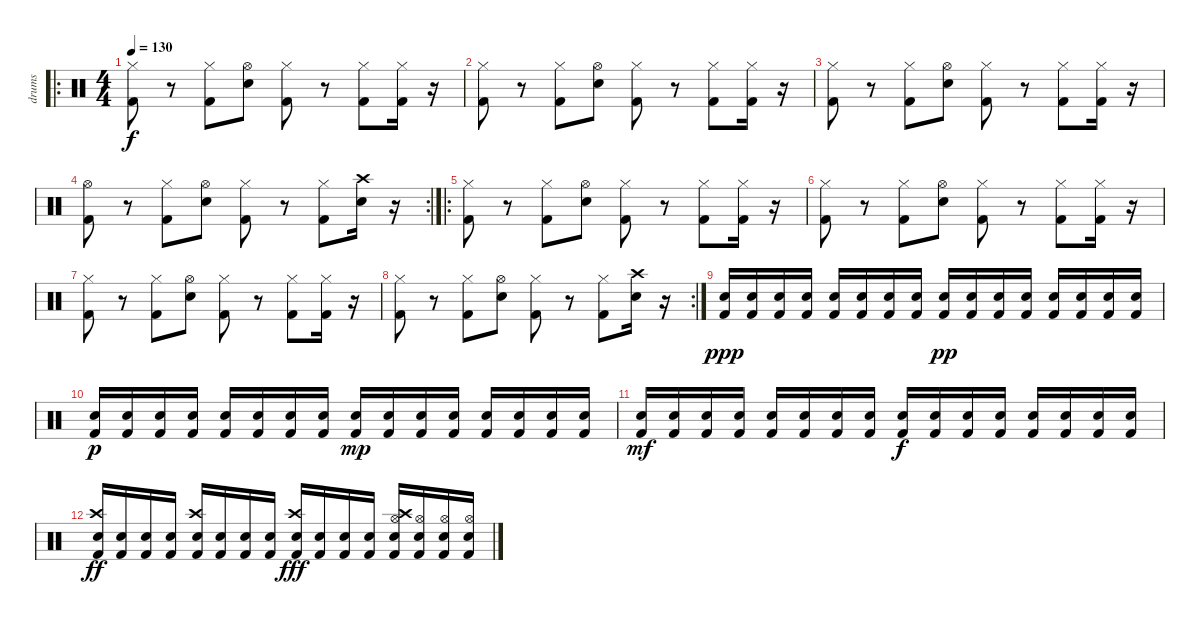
\track ("drums" "drums") {instrument percussion}
\staff {score}
\articulation defaults
\ro
\ts (4 4)
\tempo 130
\clef neutral
\ks c
("Hi-Hat (closed)" "Kick (hit) 2").8{dy f} r.8 ("Hi-Hat (closed)" "Kick (hit) 2").8 ("Hi-Hat (open)" "Snare (hit) 2").8 ("Hi-Hat (closed)" "Kick (hit) 2").8 r.8 ("Hi-Hat (closed)" "Kick (hit) 2").8 ("Hi-Hat (closed)" "Kick (hit) 2").16 r.16 |
("Hi-Hat (closed)" "Kick (hit) 2").8 r.8 ("Hi-Hat (closed)" "Kick (hit) 2").8 ("Hi-Hat (open)" "Snare (hit) 2").8 ("Hi-Hat (closed)" "Kick (hit) 2").8 r.8 ("Hi-Hat (closed)" "Kick (hit) 2").8 ("Hi-Hat (closed)" "Kick (hit) 2").16 r.16 |
("Hi-Hat (closed)" "Kick (hit) 2").8 r.8 ("Hi-Hat (closed)" "Kick (hit) 2").8 ("Hi-Hat (open)" "Snare (hit) 2").8 ("Hi-Hat (closed)" "Kick (hit) 2").8 r.8 ("Hi-Hat (closed)" "Kick (hit) 2").8 ("Hi-Hat (closed)" "Kick (hit) 2").16 r.16 |
\rc 2
("Hi-Hat (open)" "Kick (hit) 2").8 r.8 ("Hi-Hat (closed)" "Kick (hit) 2").8 ("Hi-Hat (open)" "Snare (hit) 2").8 ("Hi-Hat (closed)" "Kick (hit) 2").8 r.8 ("Hi-Hat (closed)" "Kick (hit) 2").8 ("Crash high (hit)" "Electric Snare (hit)").16 r.16 |
\ro
("Hi-Hat (closed)" "Kick (hit) 2").8 r.8 ("Hi-Hat (closed)" "Kick (hit) 2").8 ("Hi-Hat (open)" "Snare (hit) 2").8 ("Hi-Hat (closed)" "Kick (hit) 2").8 r.8 ("Hi-Hat (closed)" "Kick (hit) 2").8 ("Hi-Hat (closed)" "Kick (hit) 2").16 r.16 |
("Hi-Hat (closed)" "Kick (hit) 2").8 r.8 ("Hi-Hat (closed)" "Kick (hit) 2").8 ("Hi-Hat (open)" "Snare (hit) 2").8 ("Hi-Hat (closed)" "Kick (hit) 2").8 r.8 ("Hi-Hat (closed)" "Kick (hit) 2").8 ("Hi-Hat (closed)" "Kick (hit) 2").16 r.16 |
("Hi-Hat (closed)" "Kick (hit) 2").8 r.8 ("Hi-Hat (closed)" "Kick (hit) 2").8 ("Hi-Hat (open)" "Snare (hit) 2").8 ("Hi-Hat (closed)" "Kick (hit) 2").8 r.8 ("Hi-Hat (closed)" "Kick (hit) 2").8 ("Hi-Hat (closed)" "Kick (hit) 2").16 r.16 |
\rc 2
("Hi-Hat (closed)" "Kick (hit) 2").8 r.8 ("Hi-Hat (closed)" "Kick (hit) 2").8 ("Hi-Hat (open)" "Snare (hit) 2").8 ("Hi-Hat (closed)" "Kick (hit) 2").8 r.8 ("Hi-Hat (closed)" "Kick (hit) 2").8 ("Crash high (hit)" "Electric Snare (hit)").16 r.16 |
("Electric Snare (hit)" "Kick (hit) 2").16{dy ppp} ("Electric Snare (hit)" "Kick (hit) 2").16 ("Electric Snare (hit)" "Kick (hit) 2").16 ("Electric Snare (hit)" "Kick (hit) 2").16 ("Electric Snare (hit)" "Kick (hit) 2").16 ("Electric Snare (hit)" "Kick (hit) 2").16 ("Electric Snare (hit)" "Kick (hit) 2").16 ("Electric Snare (hit)" "Kick (hit) 2").16 ("Electric Snare (hit)" "Kick (hit) 2").16{dy pp} ("Electric Snare (hit)" "Kick (hit) 2").16 ("Electric Snare (hit)" "Kick (hit) 2").16 ("Electric Snare (hit)" "Kick (hit) 2").16 ("Electric Snare (hit)" "Kick (hit) 2").16 ("Electric Snare (hit)" "Kick (hit) 2").16 ("Electric Snare (hit)" "Kick (hit) 2").16 ("Electric Snare (hit)" "Kick (hit) 2").16 |
("Electric Snare (hit)" "Kick (hit) 2").16{dy p} ("Electric Snare (hit)" "Kick (hit) 2").16 ("Electric Snare (hit)" "Kick (hit) 2").16 ("Electric Snare (hit)" "Kick (hit) 2").16 ("Electric Snare (hit)" "Kick (hit) 2").16 ("Electric Snare (hit)" "Kick (hit) 2").16 ("Electric Snare (hit)" "Kick (hit) 2").16 ("Electric Snare (hit)" "Kick (hit) 2").16 ("Electric Snare (hit)" "Kick (hit) 2").16{dy mp} ("Electric Snare (hit)" "Kick (hit) 2").16 ("Electric Snare (hit)" "Kick (hit) 2").16 ("Electric Snare (hit)" "Kick (hit) 2").16 ("Electric Snare (hit)" "Kick (hit) 2").16 ("Electric Snare (hit)" "Kick (hit) 2").16 ("Electric Snare (hit)" "Kick (hit) 2").16 ("Electric Snare (hit)" "Kick (hit) 2").16 |
("Electric Snare (hit)" "Kick (hit) 2").16{dy mf} ("Electric Snare (hit)" "Kick (hit) 2").16 ("Electric Snare (hit)" "Kick (hit) 2").16 ("Electric Snare (hit)" "Kick (hit) 2").16 ("Electric Snare (hit)" "Kick (hit) 2").16 ("Electric Snare (hit)" "Kick (hit) 2").16 ("Electric Snare (hit)" "Kick (hit) 2").16 ("Electric Snare (hit)" "Kick (hit) 2").16 ("Electric Snare (hit)" "Kick (hit) 2").16{dy f} ("Electric Snare (hit)" "Kick (hit) 2").16 ("Electric Snare (hit)" "Kick (hit) 2").16 ("Electric Snare (hit)" "Kick (hit) 2").16 ("Electric Snare (hit)" "Kick (hit) 2").16 ("Electric Snare (hit)" "Kick (hit) 2").16 ("Electric Snare (hit)" "Kick (hit) 2").16 ("Electric Snare (hit)" "Kick (hit) 2").16 |
("Crash high (hit)" "Electric Snare (hit)" "Kick (hit) 2").16{dy ff} ("Electric Snare (hit)" "Kick (hit) 2").16 ("Electric Snare (hit)" "Kick (hit) 2").16 ("Electric Snare (hit)" "Kick (hit) 2").16 ("Crash high (hit)" "Electric Snare (hit)" "Kick (hit) 2").16 ("Electric Snare (hit)" "Kick (hit) 2").16 ("Electric Snare (hit)" "Kick (hit) 2").16 ("Electric Snare (hit)" "Kick (hit) 2").16 ("Crash high (hit)" "Electric Snare (hit)" "Kick (hit) 2").16{dy fff} ("Electric Snare (hit)" "Kick (hit) 2").16 ("Electric Snare (hit)" "Kick (hit) 2").16 ("Electric Snare (hit)" "Kick (hit) 2").16 ("Hi-Hat (open)" "Crash high (hit)" "Electric Snare (hit)" "Kick (hit) 2").16 ("Hi-Hat (open)" "Electric Snare (hit)" "Kick (hit) 2").16 ("Hi-Hat (open)" "Electric Snare (hit)" "Kick (hit) 2").16 ("Hi-Hat (open)" "Electric Snare (hit)" "Kick (hit) 2").16
